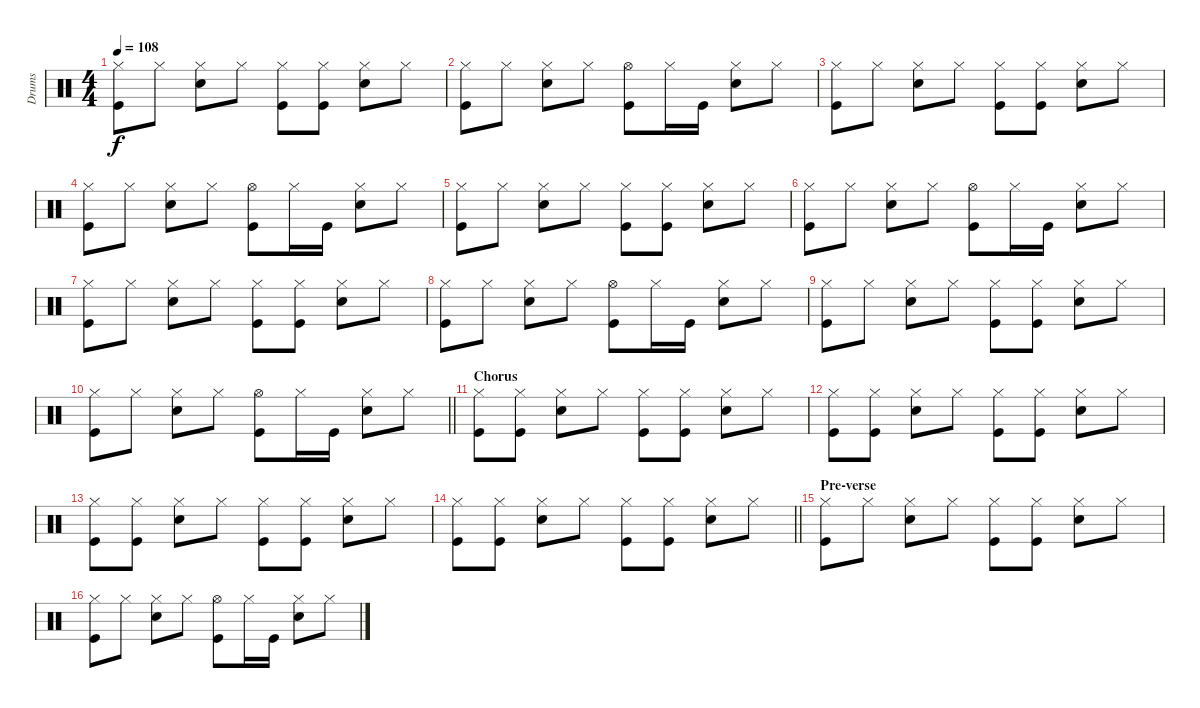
\track ("Drums" "Drums") {instrument percussion}
\staff {score}
\articulation defaults
\ts (4 4)
\tempo 108
\clef neutral
\ks c
("Hi-Hat (closed)" "Kick (hit)").8{dy f} "Hi-Hat (closed)".8 ("Hi-Hat (closed)" "Snare (hit) 2").8 "Hi-Hat (closed)".8 ("Hi-Hat (closed)" "Kick (hit)").8 ("Hi-Hat (closed)" "Kick (hit)").8 ("Hi-Hat (closed)" "Snare (hit) 2").8 "Hi-Hat (closed)".8 |
("Hi-Hat (closed)" "Kick (hit)").8 "Hi-Hat (closed)".8 ("Hi-Hat (closed)" "Snare (hit) 2").8 "Hi-Hat (closed)".8 ("Hi-Hat (open)" "Kick (hit)").8 "Hi-Hat (closed)".16 "Kick (hit)".16 ("Hi-Hat (closed)" "Snare (hit) 2").8 "Hi-Hat (closed)".8 |
("Hi-Hat (closed)" "Kick (hit)").8 "Hi-Hat (closed)".8 ("Hi-Hat (closed)" "Snare (hit) 2").8 "Hi-Hat (closed)".8 ("Hi-Hat (closed)" "Kick (hit)").8 ("Hi-Hat (closed)" "Kick (hit)").8 ("Hi-Hat (closed)" "Snare (hit) 2").8 "Hi-Hat (closed)".8 |
("Hi-Hat (closed)" "Kick (hit)").8 "Hi-Hat (closed)".8 ("Hi-Hat (closed)" "Snare (hit) 2").8 "Hi-Hat (closed)".8 ("Hi-Hat (open)" "Kick (hit)").8 "Hi-Hat (closed)".16 "Kick (hit)".16 ("Hi-Hat (closed)" "Snare (hit) 2").8 "Hi-Hat (closed)".8 |
("Hi-Hat (closed)" "Kick (hit)").8 "Hi-Hat (closed)".8 ("Hi-Hat (closed)" "Snare (hit) 2").8 "Hi-Hat (closed)".8 ("Hi-Hat (closed)" "Kick (hit)").8 ("Hi-Hat (closed)" "Kick (hit)").8 ("Hi-Hat (closed)" "Snare (hit) 2").8 "Hi-Hat (closed)".8 |
("Hi-Hat (closed)" "Kick (hit)").8 "Hi-Hat (closed)".8 ("Hi-Hat (closed)" "Snare (hit) 2").8 "Hi-Hat (closed)".8 ("Hi-Hat (open)" "Kick (hit)").8 "Hi-Hat (closed)".16 "Kick (hit)".16 ("Hi-Hat (closed)" "Snare (hit) 2").8 "Hi-Hat (closed)".8 |
("Hi-Hat (closed)" "Kick (hit)").8 "Hi-Hat (closed)".8 ("Hi-Hat (closed)" "Snare (hit) 2").8 "Hi-Hat (closed)".8 ("Hi-Hat (closed)" "Kick (hit)").8 ("Hi-Hat (closed)" "Kick (hit)").8 ("Hi-Hat (closed)" "Snare (hit) 2").8 "Hi-Hat (closed)".8 |
("Hi-Hat (closed)" "Kick (hit)").8 "Hi-Hat (closed)".8 ("Hi-Hat (closed)" "Snare (hit) 2").8 "Hi-Hat (closed)".8 ("Hi-Hat (open)" "Kick (hit)").8 "Hi-Hat (closed)".16 "Kick (hit)".16 ("Hi-Hat (closed)" "Snare (hit) 2").8 "Hi-Hat (closed)".8 |
("Hi-Hat (closed)" "Kick (hit)").8 "Hi-Hat (closed)".8 ("Hi-Hat (closed)" "Snare (hit) 2").8 "Hi-Hat (closed)".8 ("Hi-Hat (closed)" "Kick (hit)").8 ("Hi-Hat (closed)" "Kick (hit)").8 ("Hi-Hat (closed)" "Snare (hit) 2").8 "Hi-Hat (closed)".8 |
\barLineRight lightlight
("Hi-Hat (closed)" "Kick (hit)").8 "Hi-Hat (closed)".8 ("Hi-Hat (closed)" "Snare (hit) 2").8 "Hi-Hat (closed)".8 ("Hi-Hat (open)" "Kick (hit)").8 "Hi-Hat (closed)".16 "Kick (hit)".16 ("Hi-Hat (closed)" "Snare (hit) 2").8 "Hi-Hat (closed)".8 |
\section ("" "Chorus")
("Hi-Hat (closed)" "Kick (hit)").8 ("Hi-Hat (closed)" "Kick (hit)").8 ("Hi-Hat (closed)" "Snare (hit) 2").8 "Hi-Hat (closed)".8 ("Hi-Hat (closed)" "Kick (hit)").8 ("Hi-Hat (closed)" "Kick (hit)").8 ("Hi-Hat (closed)" "Snare (hit) 2").8 "Hi-Hat (closed)".8 |
("Hi-Hat (closed)" "Kick (hit)").8 ("Hi-Hat (closed)" "Kick (hit)").8 ("Hi-Hat (closed)" "Snare (hit) 2").8 "Hi-Hat (closed)".8 ("Hi-Hat (closed)" "Kick (hit)").8 ("Hi-Hat (closed)" "Kick (hit)").8 ("Hi-Hat (closed)" "Snare (hit) 2").8 "Hi-Hat (closed)".8 |
("Hi-Hat (closed)" "Kick (hit)").8 ("Hi-Hat (closed)" "Kick (hit)").8 ("Hi-Hat (closed)" "Snare (hit) 2").8 "Hi-Hat (closed)".8 ("Hi-Hat (closed)" "Kick (hit)").8 ("Hi-Hat (closed)" "Kick (hit)").8 ("Hi-Hat (closed)" "Snare (hit) 2").8 "Hi-Hat (closed)".8 |
\barLineRight lightlight
("Hi-Hat (closed)" "Kick (hit)").8 ("Hi-Hat (closed)" "Kick (hit)").8 ("Hi-Hat (closed)" "Snare (hit) 2").8 "Hi-Hat (closed)".8 ("Hi-Hat (closed)" "Kick (hit)").8 ("Hi-Hat (closed)" "Kick (hit)").8 ("Hi-Hat (closed)" "Snare (hit) 2").8 "Hi-Hat (closed)".8 |
\section ("" "Pre-verse")
("Hi-Hat (closed)" "Kick (hit)").8 "Hi-Hat (closed)".8 ("Hi-Hat (closed)" "Snare (hit) 2").8 "Hi-Hat (closed)".8 ("Hi-Hat (closed)" "Kick (hit)").8 ("Hi-Hat (closed)" "Kick (hit)").8 ("Hi-Hat (closed)" "Snare (hit) 2").8 "Hi-Hat (closed)".8 |
("Hi-Hat (closed)" "Kick (hit)").8 "Hi-Hat (closed)".8 ("Hi-Hat (closed)" "Snare (hit) 2").8 "Hi-Hat (closed)".8 ("Hi-Hat (open)" "Kick (hit)").8 "Hi-Hat (closed)".16 "Kick (hit)".16 ("Hi-Hat (closed)" "Snare (hit) 2").8 "Hi-Hat (closed)".8
